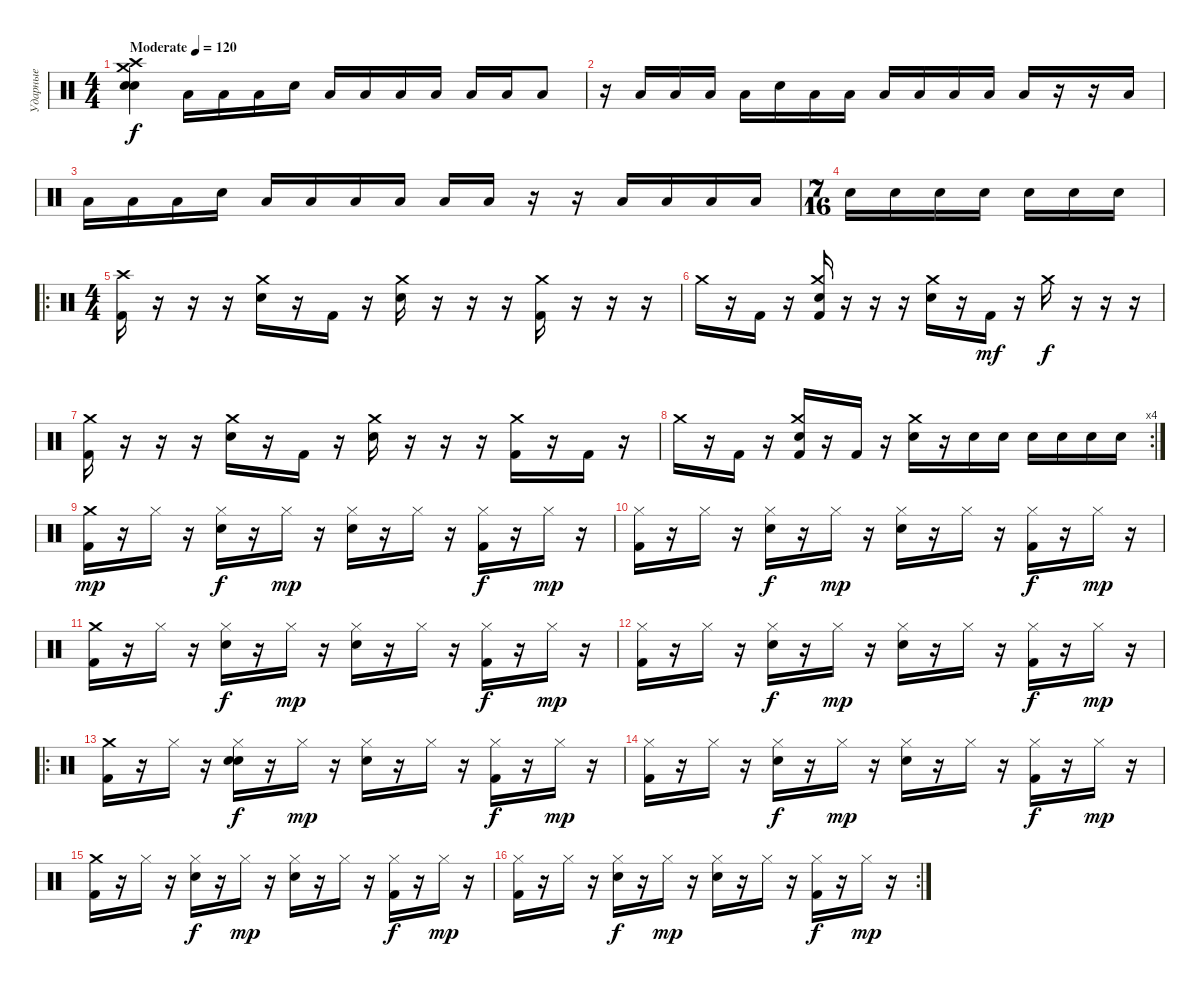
\track ("Ударные" "Ударные") {instrument percussion}
\staff {score}
\articulation defaults
\ts (4 4)
\tempo (120 "Moderate")
\tempo 140
\tempo (120 "Moderate")
\clef neutral
\ks c
("Electric Snare (hit)" "Snare (hit) 2" "Crash high (hit)" "Crash medium (hit)").4{dy f} "Low Tom (hit)".16 "Low Tom (hit)".16 "Low Tom (hit)".16 "Electric Snare (hit)".16 "Low Tom (hit)".16 "Low Tom (hit)".16 "Low Tom (hit)".16 "Low Tom (hit)".16 "Low Tom (hit)".16 "Low Tom (hit)".16 "Low Tom (hit)".8 |
r.16 "Low Tom (hit)".16 "Low Tom (hit)".16 "Low Tom (hit)".16 "Low Tom (hit)".16 "Electric Snare (hit)".16 "Low Tom (hit)".16 "Low Tom (hit)".16 "Low Tom (hit)".16 "Low Tom (hit)".16 "Low Tom (hit)".16 "Low Tom (hit)".16 "Low Tom (hit)".16 r.16 r.16 "Low Tom (hit)".16 |
"Low Tom (hit)".16 "Low Tom (hit)".16 "Low Tom (hit)".16 "Electric Snare (hit)".16 "Low Tom (hit)".16 "Low Tom (hit)".16 "Low Tom (hit)".16 "Low Tom (hit)".16 "Low Tom (hit)".16 "Low Tom (hit)".16 r.16 r.16 "Low Tom (hit)".16 "Low Tom (hit)".16 "Low Tom (hit)".16 "Low Tom (hit)".16 |
\ts (7 16)
"Electric Snare (hit)".16 "Electric Snare (hit)".16 "Electric Snare (hit)".16 "Electric Snare (hit)".16 "Electric Snare (hit)".16 "Electric Snare (hit)".16 "Electric Snare (hit)".16 |
\ro
\ts (4 4)
("Crash high (hit)" "Kick (hit) 2").16 r.16 r.16 r.16 ("Crash medium (hit)" "Electric Snare (hit)").16 r.16 "Kick (hit) 2".16 r.16 ("Crash medium (hit)" "Electric Snare (hit)").16 r.16 r.16 r.16 ("Crash medium (hit)" "Kick (hit) 2").16 r.16 r.16 r.16 |
"Crash medium (hit)".16 r.16 "Kick (hit) 2".16 r.16 ("Crash medium (hit)" "Snare (hit) 2" "Kick (hit) 2").16 r.16 r.16 r.16 ("Crash medium (hit)" "Electric Snare (hit)").16 r.16 "Kick (hit) 2".16{dy mf} r.16 "Crash medium (hit)".16{dy f} r.16 r.16 r.16 |
("Crash medium (hit)" "Kick (hit) 2").16 r.16 r.16 r.16 ("Crash medium (hit)" "Snare (hit) 2").16 r.16 "Kick (hit) 2".16 r.16 ("Crash medium (hit)" "Electric Snare (hit)").16 r.16 r.16 r.16 ("Crash medium (hit)" "Kick (hit) 2").16 r.16 "Kick (hit) 2".16 r.16 |
\rc 4 "Crash medium (hit)".16
r.16 "Kick (hit) 2".16 r.16 ("Crash medium (hit)" "Electric Snare (hit)" "Kick (hit) 2").16 r.16 "Kick (hit) 2".16 r.16 ("Crash medium (hit)" "Electric Snare (hit)").16 r.16 "Snare (hit) 2".16 "Snare (hit) 2".16 "Electric Snare (hit)".16 "Electric Snare (hit)".16 "Electric Snare (hit)".16 "Electric Snare (hit)".16 |
("Crash medium (hit)" "Kick (hit) 2").16{dy mp} r.16 "Hi-Hat (closed)".16 r.16 ("Hi-Hat (closed)" "Electric Snare (hit)").16{dy f} r.16 "Hi-Hat (closed)".16{dy mp} r.16 ("Hi-Hat (closed)" "Electric Snare (hit)").16 r.16 "Hi-Hat (closed)".16 r.16 ("Hi-Hat (closed)" "Kick (hit) 2").16{dy f} r.16 "Hi-Hat (closed)".16{dy mp} r.16 |
("Hi-Hat (closed)" "Kick (hit) 2").16 r.16 "Hi-Hat (closed)".16 r.16 ("Hi-Hat (closed)" "Electric Snare (hit)").16{dy f} r.16 "Hi-Hat (closed)".16{dy mp} r.16 ("Hi-Hat (closed)" "Electric Snare (hit)").16 r.16 "Hi-Hat (closed)".16 r.16 ("Hi-Hat (closed)" "Kick (hit) 2").16{dy f} r.16 "Hi-Hat (closed)".16{dy mp} r.16 |
("Crash medium (hit)" "Kick (hit) 2").16 r.16 "Hi-Hat (closed)".16 r.16 ("Hi-Hat (closed)" "Electric Snare (hit)").16{dy f} r.16 "Hi-Hat (closed)".16{dy mp} r.16 ("Hi-Hat (closed)" "Electric Snare (hit)").16 r.16 "Hi-Hat (closed)".16 r.16 ("Hi-Hat (closed)" "Kick (hit) 2").16{dy f} r.16 "Hi-Hat (closed)".16{dy mp} r.16 |
("Hi-Hat (closed)" "Kick (hit) 2").16 r.16 "Hi-Hat (closed)".16 r.16 ("Hi-Hat (closed)" "Electric Snare (hit)").16{dy f} r.16 "Hi-Hat (closed)".16{dy mp} r.16 ("Hi-Hat (closed)" "Electric Snare (hit)").16 r.16 "Hi-Hat (closed)".16 r.16 ("Hi-Hat (closed)" "Kick (hit) 2").16{dy f} r.16 "Hi-Hat (closed)".16{dy mp} r.16 |
\ro
("Crash medium (hit)" "Kick (hit) 2").16 r.16 "Hi-Hat (closed)".16 r.16 ("Hi-Hat (closed)" "Electric Snare (hit)" "Electric Snare (hit)").16{dy f} r.16 "Hi-Hat (closed)".16{dy mp} r.16 ("Hi-Hat (closed)" "Electric Snare (hit)").16 r.16 "Hi-Hat (closed)".16 r.16 ("Hi-Hat (closed)" "Kick (hit) 2").16{dy f} r.16 "Hi-Hat (closed)".16{dy mp} r.16 |
("Hi-Hat (closed)" "Kick (hit) 2").16 r.16 "Hi-Hat (closed)".16 r.16 ("Hi-Hat (closed)" "Electric Snare (hit)").16{dy f} r.16 "Hi-Hat (closed)".16{dy mp} r.16 ("Hi-Hat (closed)" "Electric Snare (hit)").16 r.16 "Hi-Hat (closed)".16 r.16 ("Hi-Hat (closed)" "Kick (hit) 2").16{dy f} r.16 "Hi-Hat (closed)".16{dy mp} r.16 |
("Crash medium (hit)" "Kick (hit) 2").16 r.16 "Hi-Hat (closed)".16 r.16 ("Hi-Hat (closed)" "Electric Snare (hit)").16{dy f} r.16 "Hi-Hat (closed)".16{dy mp} r.16 ("Hi-Hat (closed)" "Electric Snare (hit)").16 r.16 "Hi-Hat (closed)".16 r.16 ("Hi-Hat (closed)" "Kick (hit) 2").16{dy f} r.16 "Hi-Hat (closed)".16{dy mp} r.16 |
\rc 2
("Hi-Hat (closed)" "Kick (hit) 2").16 r.16 "Hi-Hat (closed)".16 r.16 ("Hi-Hat (closed)" "Electric Snare (hit)").16{dy f} r.16 "Hi-Hat (closed)".16{dy mp} r.16 ("Hi-Hat (closed)" "Electric Snare (hit)").16 r.16 "Hi-Hat (closed)".16 r.16 ("Hi-Hat (closed)" "Kick (hit) 2").16{dy f} r.16 "Hi-Hat (closed)".16{dy mp} r.16
